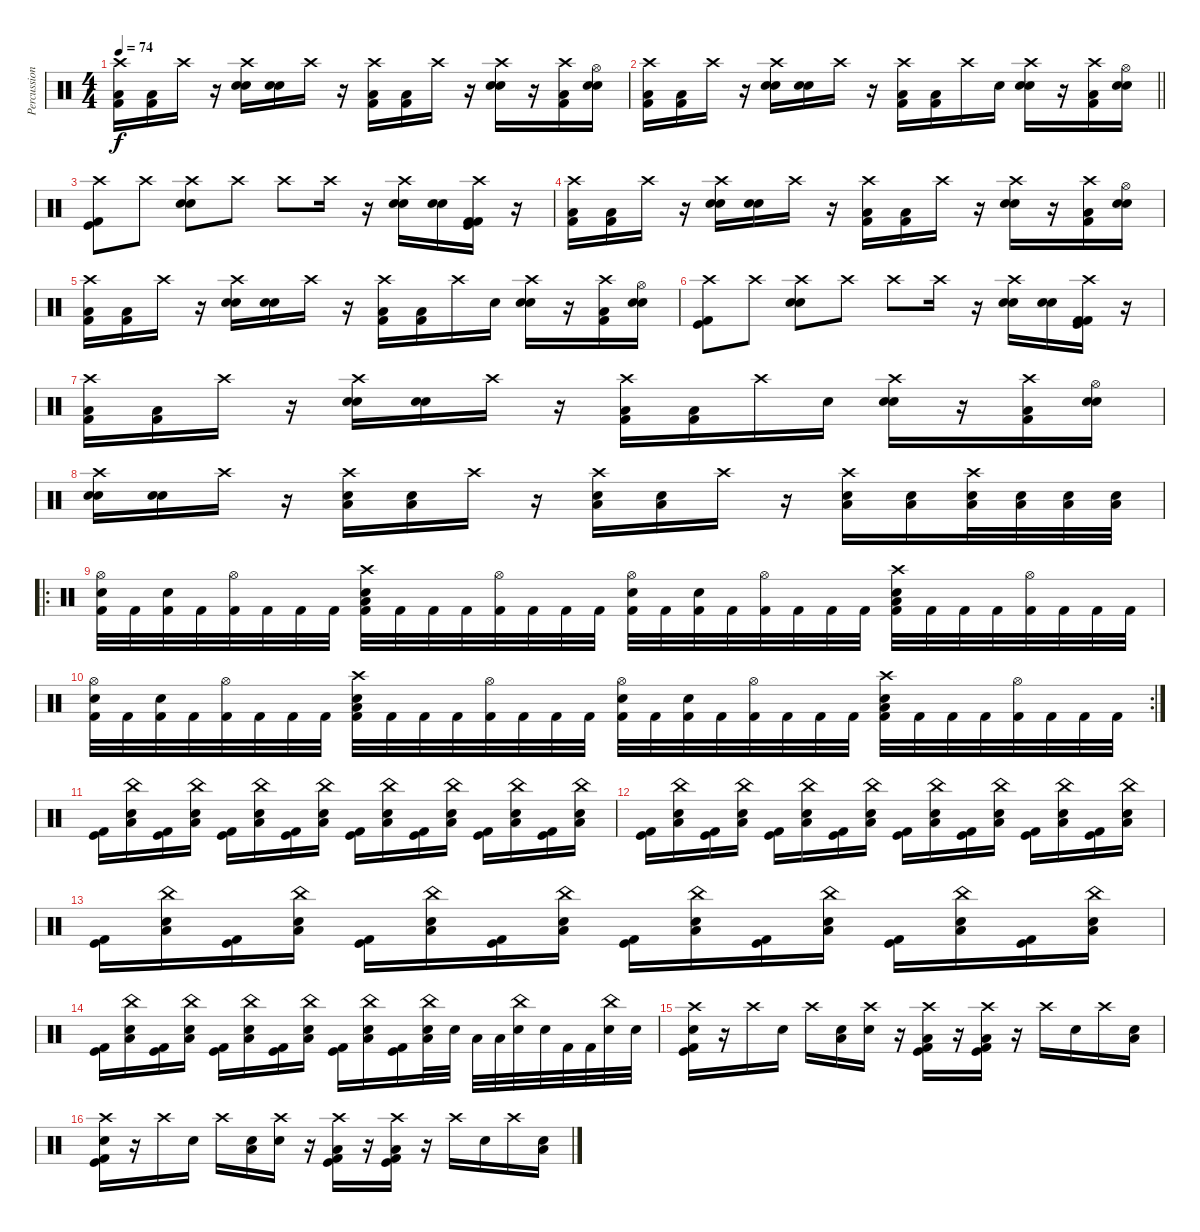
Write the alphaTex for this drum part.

\track ("Percussions" "Percussion") {instrument percussion}
\staff {score}
\articulation defaults
\ts (4 4)
\tempo 74
\clef neutral
\ks c
("Crash high (hit)" "Low Tom (hit)" "Kick (hit) 2").16{dy f} ("Low Tom (hit)" "Kick (hit) 2").16 "Crash high (hit)".16 r.16 ("Crash high (hit)" "Snare (hit) 2" "Electric Snare (hit)").16 ("Snare (hit) 2" "Electric Snare (hit)").16 "Crash high (hit)".16 r.16 ("Crash high (hit)" "Low Tom (hit)" "Kick (hit) 2").16 ("Low Tom (hit)" "Kick (hit) 2").16 "Crash high (hit)".16 r.16 ("Crash high (hit)" "Snare (hit) 2" "Electric Snare (hit)").16 r.16 ("Crash high (hit)" "Low Tom (hit)" "Kick (hit) 2").16 ("Hi-Hat (open)" "Electric Snare (hit)" "Snare (hit) 2").16 |
\barLineRight lightlight
("Crash high (hit)" "Low Tom (hit)" "Kick (hit) 2").16 ("Low Tom (hit)" "Kick (hit) 2").16 "Crash high (hit)".16 r.16 ("Crash high (hit)" "Snare (hit) 2" "Electric Snare (hit)").16 ("Snare (hit) 2" "Electric Snare (hit)").16 "Crash high (hit)".16 r.16 ("Crash high (hit)" "Low Tom (hit)" "Kick (hit) 2").16 ("Low Tom (hit)" "Kick (hit) 2").16 "Crash high (hit)".16 "Electric Snare (hit)".16 ("Crash high (hit)" "Snare (hit) 2" "Electric Snare (hit)").16 r.16 ("Crash high (hit)" "Low Tom (hit)" "Kick (hit) 2").16 ("Hi-Hat (open)" "Electric Snare (hit)" "Snare (hit) 2").16 |
("Crash high (hit)" "Kick (hit)" "Kick (hit) 2").8 "Crash high (hit)".8 ("Crash high (hit)" "Snare (hit) 2" "Electric Snare (hit)").8 "Crash high (hit)".8 "Crash high (hit)".8 "Crash high (hit)".16 r.16 ("Crash high (hit)" "Electric Snare (hit)" "Snare (hit) 2").16 ("Electric Snare (hit)" "Snare (hit) 2").16 ("Crash high (hit)" "Kick (hit)" "Kick (hit) 2" "Kick (hit) 2").16 r.16 |
("Crash high (hit)" "Low Tom (hit)" "Kick (hit) 2").16 ("Low Tom (hit)" "Kick (hit) 2").16 "Crash high (hit)".16 r.16 ("Crash high (hit)" "Snare (hit) 2" "Electric Snare (hit)").16 ("Snare (hit) 2" "Electric Snare (hit)").16 "Crash high (hit)".16 r.16 ("Crash high (hit)" "Low Tom (hit)" "Kick (hit) 2").16 ("Low Tom (hit)" "Kick (hit) 2").16 "Crash high (hit)".16 r.16 ("Crash high (hit)" "Snare (hit) 2" "Electric Snare (hit)").16 r.16 ("Crash high (hit)" "Low Tom (hit)" "Kick (hit) 2").16 ("Hi-Hat (open)" "Electric Snare (hit)" "Snare (hit) 2").16 |
("Crash high (hit)" "Low Tom (hit)" "Kick (hit) 2").16 ("Low Tom (hit)" "Kick (hit) 2").16 "Crash high (hit)".16 r.16 ("Crash high (hit)" "Snare (hit) 2" "Electric Snare (hit)").16 ("Snare (hit) 2" "Electric Snare (hit)").16 "Crash high (hit)".16 r.16 ("Crash high (hit)" "Low Tom (hit)" "Kick (hit) 2").16 ("Low Tom (hit)" "Kick (hit) 2").16 "Crash high (hit)".16 "Electric Snare (hit)".16 ("Crash high (hit)" "Snare (hit) 2" "Electric Snare (hit)").16 r.16 ("Crash high (hit)" "Low Tom (hit)" "Kick (hit) 2").16 ("Hi-Hat (open)" "Electric Snare (hit)" "Snare (hit) 2").16 |
("Crash high (hit)" "Kick (hit)" "Kick (hit) 2").8 "Crash high (hit)".8 ("Crash high (hit)" "Snare (hit) 2" "Electric Snare (hit)").8 "Crash high (hit)".8 "Crash high (hit)".8 "Crash high (hit)".16 r.16 ("Crash high (hit)" "Electric Snare (hit)" "Snare (hit) 2").16 ("Electric Snare (hit)" "Snare (hit) 2").16 ("Crash high (hit)" "Kick (hit)" "Kick (hit) 2" "Kick (hit) 2").16 r.16 |
("Crash high (hit)" "Low Tom (hit)" "Kick (hit) 2").16 ("Low Tom (hit)" "Kick (hit) 2").16 "Crash high (hit)".16 r.16 ("Crash high (hit)" "Snare (hit) 2" "Electric Snare (hit)").16 ("Snare (hit) 2" "Electric Snare (hit)").16 "Crash high (hit)".16 r.16 ("Crash high (hit)" "Low Tom (hit)" "Kick (hit) 2").16 ("Low Tom (hit)" "Kick (hit) 2").16 "Crash high (hit)".16 "Electric Snare (hit)".16 ("Crash high (hit)" "Snare (hit) 2" "Electric Snare (hit)").16 r.16 ("Crash high (hit)" "Low Tom (hit)" "Kick (hit) 2").16 ("Hi-Hat (open)" "Electric Snare (hit)" "Snare (hit) 2").16 |
("Crash high (hit)" "Snare (hit) 2" "Electric Snare (hit)").16 ("Snare (hit) 2" "Electric Snare (hit)").16 "Crash high (hit)".16 r.16 ("Crash high (hit)" "Electric Snare (hit)" "Low Tom (hit)").16 ("Electric Snare (hit)" "Low Tom (hit)").16 "Crash high (hit)".16 r.16 ("Crash high (hit)" "Electric Snare (hit)" "Low Tom (hit)").16 ("Electric Snare (hit)" "Low Tom (hit)").16 "Crash high (hit)".16 r.16 ("Crash high (hit)" "Electric Snare (hit)" "Low Tom (hit)").16 ("Electric Snare (hit)" "Low Tom (hit)").16 ("Crash high (hit)" "Electric Snare (hit)" "Low Tom (hit)").32 ("Electric Snare (hit)" "Low Tom (hit)").32 ("Electric Snare (hit)" "Low Tom (hit)").32 ("Electric Snare (hit)" "Low Tom (hit)").32 |
\ro
("Hi-Hat (open)" "Snare (hit) 2" "Kick (hit) 2").32 "Kick (hit) 2".32 ("Snare (hit) 2" "Kick (hit) 2").32 "Kick (hit) 2".32 ("Hi-Hat (open)" "Kick (hit) 2").32 "Kick (hit) 2".32 "Kick (hit) 2".32 "Kick (hit) 2".32 ("Crash high (hit)" "Electric Snare (hit)" "Low Tom (hit)" "Kick (hit) 2").32 "Kick (hit) 2".32 "Kick (hit) 2".32 "Kick (hit) 2".32 ("Hi-Hat (open)" "Kick (hit) 2").32 "Kick (hit) 2".32 "Kick (hit) 2".32 "Kick (hit) 2".32 ("Hi-Hat (open)" "Snare (hit) 2" "Kick (hit) 2").32 "Kick (hit) 2".32 ("Snare (hit) 2" "Kick (hit) 2").32 "Kick (hit) 2".32 ("Hi-Hat (open)" "Kick (hit) 2").32 "Kick (hit) 2".32 "Kick (hit) 2".32 "Kick (hit) 2".32 ("Crash high (hit)" "Electric Snare (hit)" "Low Tom (hit)" "Kick (hit) 2").32 "Kick (hit) 2".32 "Kick (hit) 2".32 "Kick (hit) 2".32 ("Hi-Hat (open)" "Kick (hit) 2").32 "Kick (hit) 2".32 "Kick (hit) 2".32 "Kick (hit) 2".32 |
\rc 2
("Hi-Hat (open)" "Snare (hit) 2" "Kick (hit) 2").32 "Kick (hit) 2".32 ("Snare (hit) 2" "Kick (hit) 2").32 "Kick (hit) 2".32 ("Hi-Hat (open)" "Kick (hit) 2").32 "Kick (hit) 2".32 "Kick (hit) 2".32 "Kick (hit) 2".32 ("Crash high (hit)" "Electric Snare (hit)" "Low Tom (hit)" "Kick (hit) 2").32 "Kick (hit) 2".32 "Kick (hit) 2".32 "Kick (hit) 2".32 ("Hi-Hat (open)" "Kick (hit) 2").32 "Kick (hit) 2".32 "Kick (hit) 2".32 "Kick (hit) 2".32 ("Hi-Hat (open)" "Snare (hit) 2" "Kick (hit) 2").32 "Kick (hit) 2".32 ("Snare (hit) 2" "Kick (hit) 2").32 "Kick (hit) 2".32 ("Hi-Hat (open)" "Kick (hit) 2").32 "Kick (hit) 2".32 "Kick (hit) 2".32 "Kick (hit) 2".32 ("Crash high (hit)" "Electric Snare (hit)" "Low Tom (hit)" "Kick (hit) 2").32 "Kick (hit) 2".32 "Kick (hit) 2".32 "Kick (hit) 2".32 ("Hi-Hat (open)" "Kick (hit) 2").32 "Kick (hit) 2".32 "Kick (hit) 2".32 "Kick (hit) 2".32 |
("Kick (hit)" "Kick (hit) 2").16 ("Low Tom (hit)" "China (hit)" "Electric Snare (hit)").16 ("Kick (hit)" "Kick (hit) 2").16 ("Low Tom (hit)" "China (hit)" "Electric Snare (hit)").16 ("Kick (hit)" "Kick (hit) 2").16 ("Low Tom (hit)" "China (hit)" "Electric Snare (hit)").16 ("Kick (hit)" "Kick (hit) 2").16 ("Low Tom (hit)" "China (hit)" "Electric Snare (hit)").16 ("Kick (hit)" "Kick (hit) 2").16 ("Low Tom (hit)" "China (hit)" "Electric Snare (hit)").16 ("Kick (hit)" "Kick (hit) 2").16 ("Low Tom (hit)" "China (hit)" "Electric Snare (hit)").16 ("Kick (hit)" "Kick (hit) 2").16 ("Low Tom (hit)" "China (hit)" "Electric Snare (hit)").16 ("Kick (hit)" "Kick (hit) 2").16 ("Low Tom (hit)" "China (hit)" "Electric Snare (hit)").16 |
("Kick (hit)" "Kick (hit) 2").16 ("Low Tom (hit)" "China (hit)" "Electric Snare (hit)").16 ("Kick (hit)" "Kick (hit) 2").16 ("Low Tom (hit)" "China (hit)" "Electric Snare (hit)").16 ("Kick (hit)" "Kick (hit) 2").16 ("Low Tom (hit)" "China (hit)" "Electric Snare (hit)").16 ("Kick (hit)" "Kick (hit) 2").16 ("Low Tom (hit)" "China (hit)" "Electric Snare (hit)").16 ("Kick (hit)" "Kick (hit) 2").16 ("Low Tom (hit)" "China (hit)" "Electric Snare (hit)").16 ("Kick (hit)" "Kick (hit) 2").16 ("Low Tom (hit)" "China (hit)" "Electric Snare (hit)").16 ("Kick (hit)" "Kick (hit) 2").16 ("Low Tom (hit)" "China (hit)" "Electric Snare (hit)").16 ("Kick (hit)" "Kick (hit) 2").16 ("Low Tom (hit)" "China (hit)" "Electric Snare (hit)").16 |
("Kick (hit)" "Kick (hit) 2").16 ("Low Tom (hit)" "China (hit)" "Electric Snare (hit)").16 ("Kick (hit)" "Kick (hit) 2").16 ("Low Tom (hit)" "China (hit)" "Electric Snare (hit)").16 ("Kick (hit)" "Kick (hit) 2").16 ("Low Tom (hit)" "China (hit)" "Electric Snare (hit)").16 ("Kick (hit)" "Kick (hit) 2").16 ("Low Tom (hit)" "China (hit)" "Electric Snare (hit)").16 ("Kick (hit)" "Kick (hit) 2").16 ("Low Tom (hit)" "China (hit)" "Electric Snare (hit)").16 ("Kick (hit)" "Kick (hit) 2").16 ("Low Tom (hit)" "China (hit)" "Electric Snare (hit)").16 ("Kick (hit)" "Kick (hit) 2").16 ("Low Tom (hit)" "China (hit)" "Electric Snare (hit)").16 ("Kick (hit)" "Kick (hit) 2").16 ("Low Tom (hit)" "China (hit)" "Electric Snare (hit)").16 |
("Kick (hit)" "Kick (hit) 2").16 ("Low Tom (hit)" "China (hit)" "Electric Snare (hit)").16 ("Kick (hit)" "Kick (hit) 2").16 ("Low Tom (hit)" "China (hit)" "Electric Snare (hit)").16 ("Kick (hit)" "Kick (hit) 2").16 ("Low Tom (hit)" "China (hit)" "Electric Snare (hit)").16 ("Kick (hit)" "Kick (hit) 2").16 ("Low Tom (hit)" "China (hit)" "Electric Snare (hit)").16 ("Kick (hit)" "Kick (hit) 2").16 ("Low Tom (hit)" "China (hit)" "Electric Snare (hit)").16 ("Kick (hit)" "Kick (hit) 2").16 ("Low Tom (hit)" "China (hit)" "Electric Snare (hit)").32 "Electric Snare (hit)".32 "Low Tom (hit)".32 "Low Tom (hit)".32 ("China (hit)" "Snare (hit) 2").32 "Snare (hit) 2".32 "Kick (hit) 2".32 "Kick (hit) 2".32 ("China (hit)" "Electric Snare (hit)").32 "Electric Snare (hit)".32 |
("Crash high (hit)" "Snare (hit) 2" "Kick (hit) 2" "Kick (hit)").16 r.16 "Crash high (hit)".16 "Electric Snare (hit)".16 "Crash high (hit)".16 ("Low Tom (hit)" "Snare (hit) 2").16 ("Crash high (hit)" "Electric Snare (hit)").16 r.16 ("Crash high (hit)" "Kick (hit)" "Low Tom (hit)" "Kick (hit) 2").16 r.16 ("Crash high (hit)" "Kick (hit)" "Low Tom (hit)" "Kick (hit) 2").16 r.16 "Crash high (hit)".16 "Electric Snare (hit)".16 "Crash high (hit)".16 ("Low Tom (hit)" "Snare (hit) 2").16 |
("Crash high (hit)" "Snare (hit) 2" "Kick (hit) 2" "Kick (hit)").16 r.16 "Crash high (hit)".16 "Electric Snare (hit)".16 "Crash high (hit)".16 ("Low Tom (hit)" "Snare (hit) 2").16 ("Crash high (hit)" "Electric Snare (hit)").16 r.16 ("Crash high (hit)" "Kick (hit)" "Low Tom (hit)" "Kick (hit) 2").16 r.16 ("Crash high (hit)" "Kick (hit)" "Low Tom (hit)" "Kick (hit) 2").16 r.16 "Crash high (hit)".16 "Electric Snare (hit)".16 "Crash high (hit)".16 ("Low Tom (hit)" "Snare (hit) 2").16
